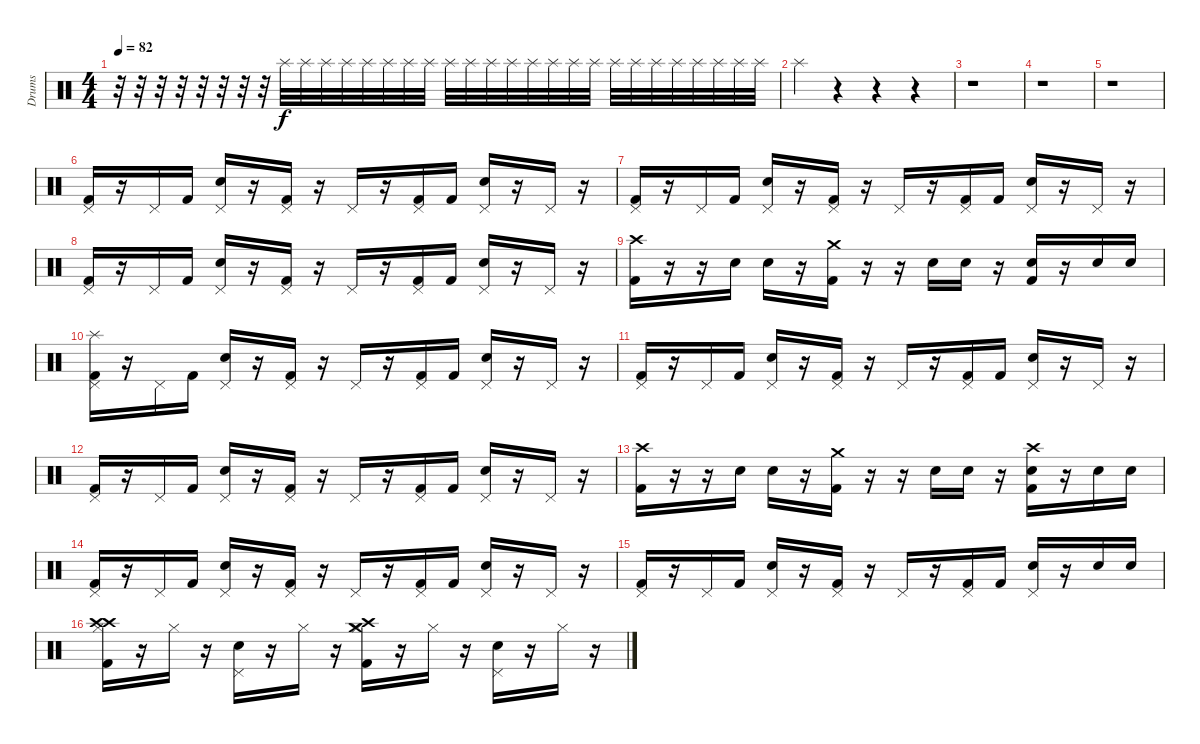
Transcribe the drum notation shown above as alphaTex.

\track ("Drums" "Drums") {instrument percussion}
\staff {score}
\articulation defaults
\ts (4 4)
\tempo 82
\clef neutral
\ks c
r.32{dy f} r.32 r.32 r.32 r.32 r.32 r.32 r.32 "Splash (hit)".32{volume 3} "Splash (hit)".32 "Splash (hit)".32 "Splash (hit)".32 "Splash (hit)".32 "Splash (hit)".32 "Splash (hit)".32 "Splash (hit)".32{volume 7} "Splash (hit)".32 "Splash (hit)".32 "Splash (hit)".32 "Splash (hit)".32 "Splash (hit)".32 "Splash (hit)".32 "Splash (hit)".32 "Splash (hit)".32{volume 12} "Splash (hit)".32 "Splash (hit)".32 "Splash (hit)".32 "Splash (hit)".32 "Splash (hit)".32 "Splash (hit)".32 "Splash (hit)".32 "Splash (hit)".32{volume 16} |
"Splash (hit)".4 r.4 r.4 r.4 |
r.1 |
r.1 |
r.1 |
("Pedal Hi-Hat (hit)" "Kick (hit) 2").16 r.16 "Pedal Hi-Hat (hit)".16 "Kick (hit) 2".16 ("Pedal Hi-Hat (hit)" "Snare (hit) 2").16 r.16 ("Pedal Hi-Hat (hit)" "Kick (hit) 2").16 r.16 "Pedal Hi-Hat (hit)".16 r.16 ("Pedal Hi-Hat (hit)" "Kick (hit) 2").16 "Kick (hit) 2".16 ("Pedal Hi-Hat (hit)" "Snare (hit) 2").16 r.16 "Pedal Hi-Hat (hit)".16 r.16 |
("Pedal Hi-Hat (hit)" "Kick (hit) 2").16 r.16 "Pedal Hi-Hat (hit)".16 "Kick (hit) 2".16 ("Pedal Hi-Hat (hit)" "Snare (hit) 2").16 r.16 ("Pedal Hi-Hat (hit)" "Kick (hit) 2").16 r.16 "Pedal Hi-Hat (hit)".16 r.16 ("Pedal Hi-Hat (hit)" "Kick (hit) 2").16 "Kick (hit) 2".16 ("Pedal Hi-Hat (hit)" "Snare (hit) 2").16 r.16 "Pedal Hi-Hat (hit)".16 r.16 |
("Pedal Hi-Hat (hit)" "Kick (hit) 2").16 r.16 "Pedal Hi-Hat (hit)".16 "Kick (hit) 2".16 ("Pedal Hi-Hat (hit)" "Snare (hit) 2").16 r.16 ("Pedal Hi-Hat (hit)" "Kick (hit) 2").16 r.16 "Pedal Hi-Hat (hit)".16 r.16 ("Pedal Hi-Hat (hit)" "Kick (hit) 2").16 "Kick (hit) 2".16 ("Pedal Hi-Hat (hit)" "Snare (hit) 2").16 r.16 "Pedal Hi-Hat (hit)".16 r.16 |
("Crash high (hit)" "Kick (hit) 2").16 r.16 r.16 "Snare (hit) 2".16 "Snare (hit) 2".16 r.16 ("Crash medium (hit)" "Kick (hit) 2").16 r.16 r.16 "Snare (hit) 2".16 "Snare (hit) 2".16 r.16 ("Kick (hit) 2" "Snare (hit) 2").16 r.16 "Snare (hit) 2".16 "Snare (hit) 2".16 |
("Pedal Hi-Hat (hit)" "Splash (hit)" "Kick (hit) 2").16 r.16 "Pedal Hi-Hat (hit)".16 "Kick (hit) 2".16 ("Pedal Hi-Hat (hit)" "Snare (hit) 2").16 r.16 ("Pedal Hi-Hat (hit)" "Kick (hit) 2").16 r.16 "Pedal Hi-Hat (hit)".16 r.16 ("Pedal Hi-Hat (hit)" "Kick (hit) 2").16 "Kick (hit) 2".16 ("Pedal Hi-Hat (hit)" "Snare (hit) 2").16 r.16 "Pedal Hi-Hat (hit)".16 r.16 |
("Pedal Hi-Hat (hit)" "Kick (hit) 2").16 r.16 "Pedal Hi-Hat (hit)".16 "Kick (hit) 2".16 ("Pedal Hi-Hat (hit)" "Snare (hit) 2").16 r.16 ("Pedal Hi-Hat (hit)" "Kick (hit) 2").16 r.16 "Pedal Hi-Hat (hit)".16 r.16 ("Pedal Hi-Hat (hit)" "Kick (hit) 2").16 "Kick (hit) 2".16 ("Pedal Hi-Hat (hit)" "Snare (hit) 2").16 r.16 "Pedal Hi-Hat (hit)".16 r.16 |
("Pedal Hi-Hat (hit)" "Kick (hit) 2").16 r.16 "Pedal Hi-Hat (hit)".16 "Kick (hit) 2".16 ("Pedal Hi-Hat (hit)" "Snare (hit) 2").16 r.16 ("Pedal Hi-Hat (hit)" "Kick (hit) 2").16 r.16 "Pedal Hi-Hat (hit)".16 r.16 ("Pedal Hi-Hat (hit)" "Kick (hit) 2").16 "Kick (hit) 2".16 ("Pedal Hi-Hat (hit)" "Snare (hit) 2").16 r.16 "Pedal Hi-Hat (hit)".16 r.16 |
("Crash high (hit)" "Kick (hit) 2").16 r.16 r.16 "Snare (hit) 2".16 "Snare (hit) 2".16 r.16 ("Crash medium (hit)" "Kick (hit) 2").16 r.16 r.16 "Snare (hit) 2".16 "Snare (hit) 2".16 r.16 ("Crash high (hit)" "Kick (hit) 2" "Snare (hit) 2").16 r.16 "Snare (hit) 2".16 "Snare (hit) 2".16 |
("Pedal Hi-Hat (hit)" "Kick (hit) 2").16 r.16 "Pedal Hi-Hat (hit)".16 "Kick (hit) 2".16 ("Pedal Hi-Hat (hit)" "Snare (hit) 2").16 r.16 ("Pedal Hi-Hat (hit)" "Kick (hit) 2").16 r.16 "Pedal Hi-Hat (hit)".16 r.16 ("Pedal Hi-Hat (hit)" "Kick (hit) 2").16 "Kick (hit) 2".16 ("Pedal Hi-Hat (hit)" "Snare (hit) 2").16 r.16 "Pedal Hi-Hat (hit)".16 r.16 |
("Pedal Hi-Hat (hit)" "Kick (hit) 2").16 r.16 "Pedal Hi-Hat (hit)".16 "Kick (hit) 2".16 ("Pedal Hi-Hat (hit)" "Snare (hit) 2").16 r.16 ("Pedal Hi-Hat (hit)" "Kick (hit) 2").16 r.16 "Pedal Hi-Hat (hit)".16 r.16 ("Pedal Hi-Hat (hit)" "Kick (hit) 2").16 "Kick (hit) 2".16 ("Pedal Hi-Hat (hit)" "Snare (hit) 2").16 r.16 "Snare (hit) 2".16 "Snare (hit) 2".16 |
("Hi-Hat (closed)" "Crash high (hit)" "Crash high (hit)" "Kick (hit) 2").16 r.16 "Hi-Hat (closed)".16 r.16 ("Pedal Hi-Hat (hit)" "Snare (hit) 2").16 r.16 "Hi-Hat (closed)".16 r.16 ("Hi-Hat (closed)" "Crash high (hit)" "Crash medium (hit)" "Kick (hit) 2").16 r.16 "Hi-Hat (closed)".16 r.16 ("Pedal Hi-Hat (hit)" "Snare (hit) 2").16 r.16 "Hi-Hat (closed)".16 r.16
